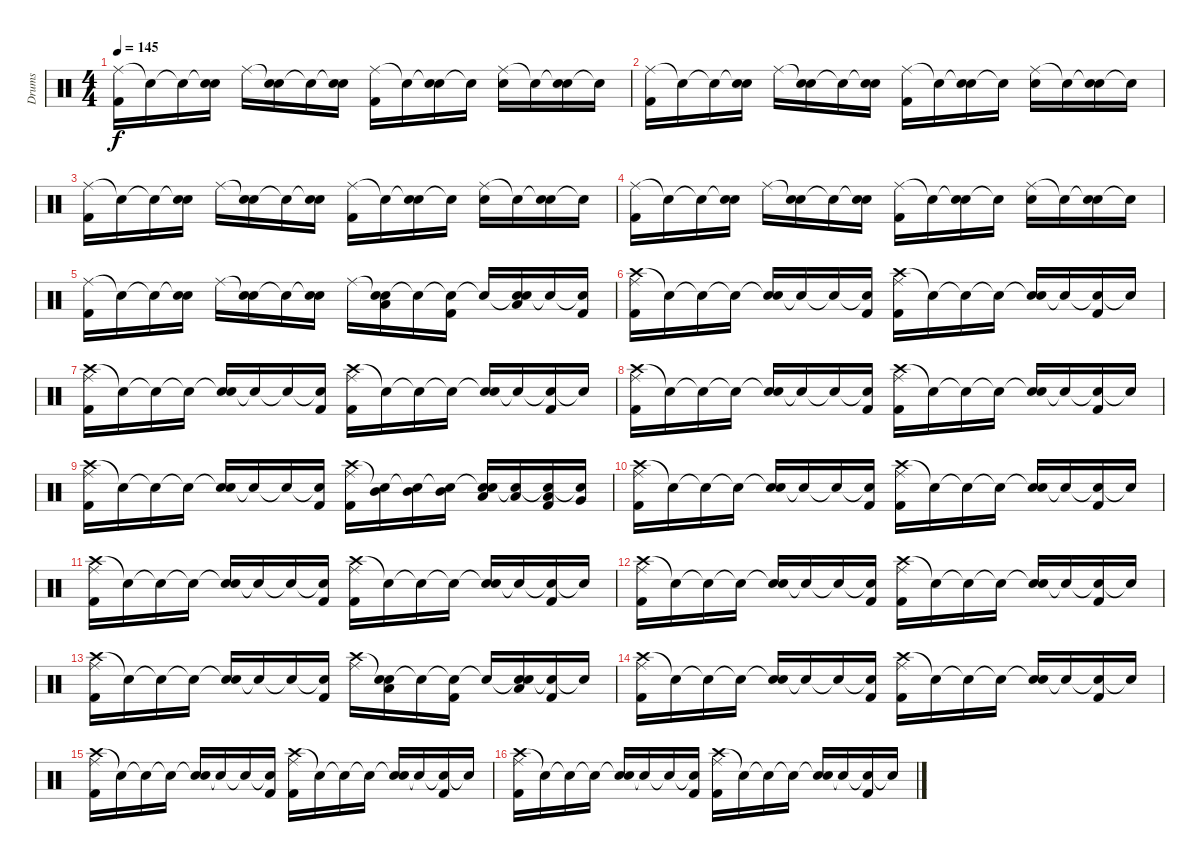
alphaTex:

\track ("Drums" "Drums") {instrument percussion}
\staff {score}
\articulation defaults
\ts (4 4)
\tempo 145
\clef neutral
\ks c
("Ride (middle)" "Kick (hit) 2").16{dy f} "Snare (hit)"{t}.16 "Snare (hit)"{t}.16 ("Snare (hit)"{t} "Electric Snare (hit)").16 "Ride (middle)".16 ("Snare (hit)"{t} "Electric Snare (hit)").16 "Snare (hit)"{t}.16 ("Snare (hit)"{t} "Electric Snare (hit)").16 ("Ride (middle)" "Kick (hit) 2").16 "Snare (hit)"{t}.16 ("Snare (hit)"{t} "Electric Snare (hit)").16 "Snare (hit)"{t}.16 ("Ride (middle)" "Electric Snare (hit)").16 "Snare (hit)"{t}.16 ("Snare (hit)"{t} "Electric Snare (hit)").16 "Snare (hit)"{t}.16 |
("Ride (middle)" "Kick (hit) 2").16 "Snare (hit)"{t}.16 "Snare (hit)"{t}.16 ("Snare (hit)"{t} "Electric Snare (hit)").16 "Ride (middle)".16 ("Snare (hit)"{t} "Electric Snare (hit)").16 "Snare (hit)"{t}.16 ("Snare (hit)"{t} "Electric Snare (hit)").16 ("Ride (middle)" "Kick (hit) 2").16 "Snare (hit)"{t}.16 ("Snare (hit)"{t} "Electric Snare (hit)").16 "Snare (hit)"{t}.16 ("Ride (middle)" "Electric Snare (hit)").16 "Snare (hit)"{t}.16 ("Snare (hit)"{t} "Electric Snare (hit)").16 "Snare (hit)"{t}.16 |
("Ride (middle)" "Kick (hit) 2").16 "Snare (hit)"{t}.16 "Snare (hit)"{t}.16 ("Snare (hit)"{t} "Electric Snare (hit)").16 "Ride (middle)".16 ("Snare (hit)"{t} "Electric Snare (hit)").16 "Snare (hit)"{t}.16 ("Snare (hit)"{t} "Electric Snare (hit)").16 ("Ride (middle)" "Kick (hit) 2").16 "Snare (hit)"{t}.16 ("Snare (hit)"{t} "Electric Snare (hit)").16 "Snare (hit)"{t}.16 ("Ride (middle)" "Electric Snare (hit)").16 "Snare (hit)"{t}.16 ("Snare (hit)"{t} "Electric Snare (hit)").16 "Snare (hit)"{t}.16 |
("Ride (middle)" "Kick (hit) 2").16 "Snare (hit)"{t}.16 "Snare (hit)"{t}.16 ("Snare (hit)"{t} "Electric Snare (hit)").16 "Ride (middle)".16 ("Snare (hit)"{t} "Electric Snare (hit)").16 "Snare (hit)"{t}.16 ("Snare (hit)"{t} "Electric Snare (hit)").16 ("Ride (middle)" "Kick (hit) 2").16 "Snare (hit)"{t}.16 ("Snare (hit)"{t} "Electric Snare (hit)").16 "Snare (hit)"{t}.16 ("Ride (middle)" "Electric Snare (hit)").16 "Snare (hit)"{t}.16 ("Snare (hit)"{t} "Electric Snare (hit)").16 "Snare (hit)"{t}.16 |
("Ride (middle)" "Kick (hit) 2").16 "Snare (hit)"{t}.16 "Snare (hit)"{t}.16 ("Snare (hit)"{t} "Electric Snare (hit)").16 "Ride (middle)".16 ("Snare (hit)"{t} "Electric Snare (hit)").16 "Snare (hit)"{t}.16 ("Snare (hit)"{t} "Electric Snare (hit)").16 "Ride (middle)".16 ("Snare (hit)"{t} "Low Floor Tom (hit)" "Electric Snare (hit)").16 "Snare (hit)"{t}.16 ("Snare (hit)"{t} "Kick (hit) 2").16 "Snare (hit)"{t}.16 ("Snare (hit)"{t} "Low Floor Tom (hit)" "Electric Snare (hit)").16 "Snare (hit)"{t}.16 ("Snare (hit)"{t} "Kick (hit) 2").16 |
("Crash high (hit)" "Ride (middle)" "Kick (hit) 2").16 "Snare (hit)"{t}.16 "Snare (hit)"{t}.16 "Snare (hit)"{t}.16 ("Snare (hit)"{t} "Electric Snare (hit)").16 "Snare (hit)"{t}.16 "Snare (hit)"{t}.16 ("Snare (hit)"{t} "Kick (hit) 2").16 ("Crash high (hit)" "Ride (middle)" "Kick (hit) 2").16 "Snare (hit)"{t}.16 "Snare (hit)"{t}.16 "Snare (hit)"{t}.16 ("Snare (hit)"{t} "Electric Snare (hit)").16 "Snare (hit)"{t}.16 ("Snare (hit)"{t} "Kick (hit) 2").16 "Snare (hit)"{t}.16 |
("Crash high (hit)" "Ride (middle)" "Kick (hit) 2").16 "Snare (hit)"{t}.16 "Snare (hit)"{t}.16 "Snare (hit)"{t}.16 ("Snare (hit)"{t} "Electric Snare (hit)").16 "Snare (hit)"{t}.16 "Snare (hit)"{t}.16 ("Snare (hit)"{t} "Kick (hit) 2").16 ("Crash high (hit)" "Ride (middle)" "Kick (hit) 2").16 "Snare (hit)"{t}.16 "Snare (hit)"{t}.16 "Snare (hit)"{t}.16 ("Snare (hit)"{t} "Electric Snare (hit)").16 "Snare (hit)"{t}.16 ("Snare (hit)"{t} "Kick (hit) 2").16 "Snare (hit)"{t}.16 |
("Crash high (hit)" "Ride (middle)" "Kick (hit) 2").16 "Snare (hit)"{t}.16 "Snare (hit)"{t}.16 "Snare (hit)"{t}.16 ("Snare (hit)"{t} "Electric Snare (hit)").16 "Snare (hit)"{t}.16 "Snare (hit)"{t}.16 ("Snare (hit)"{t} "Kick (hit) 2").16 ("Crash high (hit)" "Ride (middle)" "Kick (hit) 2").16 "Snare (hit)"{t}.16 "Snare (hit)"{t}.16 "Snare (hit)"{t}.16 ("Snare (hit)"{t} "Electric Snare (hit)").16 "Snare (hit)"{t}.16 ("Snare (hit)"{t} "Kick (hit) 2").16 "Snare (hit)"{t}.16 |
("Crash high (hit)" "Ride (middle)" "Kick (hit) 2").16 "Snare (hit)"{t}.16 "Snare (hit)"{t}.16 "Snare (hit)"{t}.16 ("Snare (hit)"{t} "Electric Snare (hit)").16 "Snare (hit)"{t}.16 "Snare (hit)"{t}.16 ("Snare (hit)"{t} "Kick (hit) 2").16 ("Crash high (hit)" "Ride (middle)" "Kick (hit) 2").16 ("Snare (hit)"{t} "Mid Tom (hit)").16 ("Snare (hit)"{t} "Mid Tom (hit)").16 ("Snare (hit)"{t} "Mid Tom (hit)").16 ("Snare (hit)"{t} "Low Tom (hit)" "Electric Snare (hit)").16 ("Snare (hit)"{t} "Low Tom (hit)").16 ("Snare (hit)"{t} "Low Tom (hit)" "Kick (hit) 2").16 ("Snare (hit)"{t} "Very Low Tom (hit)").16 |
("Crash high (hit)" "Ride (middle)" "Kick (hit) 2").16 "Snare (hit)"{t}.16 "Snare (hit)"{t}.16 "Snare (hit)"{t}.16 ("Snare (hit)"{t} "Electric Snare (hit)").16 "Snare (hit)"{t}.16 "Snare (hit)"{t}.16 ("Snare (hit)"{t} "Kick (hit) 2").16 ("Crash high (hit)" "Ride (middle)" "Kick (hit) 2").16 "Snare (hit)"{t}.16 "Snare (hit)"{t}.16 "Snare (hit)"{t}.16 ("Snare (hit)"{t} "Electric Snare (hit)").16 "Snare (hit)"{t}.16 ("Snare (hit)"{t} "Kick (hit) 2").16 "Snare (hit)"{t}.16 |
("Crash high (hit)" "Ride (middle)" "Kick (hit) 2").16 "Snare (hit)"{t}.16 "Snare (hit)"{t}.16 "Snare (hit)"{t}.16 ("Snare (hit)"{t} "Electric Snare (hit)").16 "Snare (hit)"{t}.16 "Snare (hit)"{t}.16 ("Snare (hit)"{t} "Kick (hit) 2").16 ("Crash high (hit)" "Ride (middle)" "Kick (hit) 2").16 "Snare (hit)"{t}.16 "Snare (hit)"{t}.16 "Snare (hit)"{t}.16 ("Snare (hit)"{t} "Electric Snare (hit)").16 "Snare (hit)"{t}.16 ("Snare (hit)"{t} "Kick (hit) 2").16 "Snare (hit)"{t}.16 |
("Crash high (hit)" "Ride (middle)" "Kick (hit) 2").16 "Snare (hit)"{t}.16 "Snare (hit)"{t}.16 "Snare (hit)"{t}.16 ("Snare (hit)"{t} "Electric Snare (hit)").16 "Snare (hit)"{t}.16 "Snare (hit)"{t}.16 ("Snare (hit)"{t} "Kick (hit) 2").16 ("Crash high (hit)" "Ride (middle)" "Kick (hit) 2").16 "Snare (hit)"{t}.16 "Snare (hit)"{t}.16 "Snare (hit)"{t}.16 ("Snare (hit)"{t} "Electric Snare (hit)").16 "Snare (hit)"{t}.16 ("Snare (hit)"{t} "Kick (hit) 2").16 "Snare (hit)"{t}.16 |
("Crash high (hit)" "Ride (middle)" "Kick (hit) 2").16 "Snare (hit)"{t}.16 "Snare (hit)"{t}.16 "Snare (hit)"{t}.16 ("Snare (hit)"{t} "Electric Snare (hit)").16 "Snare (hit)"{t}.16 "Snare (hit)"{t}.16 ("Snare (hit)"{t} "Kick (hit) 2").16 ("Crash high (hit)" "Ride (middle)").16 ("Snare (hit)"{t} "Low Floor Tom (hit)" "Electric Snare (hit)").16 "Snare (hit)"{t}.16 ("Snare (hit)"{t} "Kick (hit) 2").16 "Snare (hit)"{t}.16 ("Snare (hit)"{t} "Low Floor Tom (hit)" "Electric Snare (hit)").16 ("Snare (hit)"{t} "Kick (hit) 2").16 "Snare (hit)"{t}.16 |
("Crash high (hit)" "Ride (middle)" "Kick (hit) 2").16 "Snare (hit)"{t}.16 "Snare (hit)"{t}.16 "Snare (hit)"{t}.16 ("Snare (hit)"{t} "Electric Snare (hit)").16 "Snare (hit)"{t}.16 "Snare (hit)"{t}.16 ("Snare (hit)"{t} "Kick (hit) 2").16 ("Crash high (hit)" "Ride (middle)" "Kick (hit) 2").16 "Snare (hit)"{t}.16 "Snare (hit)"{t}.16 "Snare (hit)"{t}.16 ("Snare (hit)"{t} "Electric Snare (hit)").16 "Snare (hit)"{t}.16 ("Snare (hit)"{t} "Kick (hit) 2").16 "Snare (hit)"{t}.16 |
("Crash high (hit)" "Ride (middle)" "Kick (hit) 2").16 "Snare (hit)"{t}.16 "Snare (hit)"{t}.16 "Snare (hit)"{t}.16 ("Snare (hit)"{t} "Electric Snare (hit)").16 "Snare (hit)"{t}.16 "Snare (hit)"{t}.16 ("Snare (hit)"{t} "Kick (hit) 2").16 ("Crash high (hit)" "Ride (middle)" "Kick (hit) 2").16 "Snare (hit)"{t}.16 "Snare (hit)"{t}.16 "Snare (hit)"{t}.16 ("Snare (hit)"{t} "Electric Snare (hit)").16 "Snare (hit)"{t}.16 ("Snare (hit)"{t} "Kick (hit) 2").16 "Snare (hit)"{t}.16 |
("Crash high (hit)" "Ride (middle)" "Kick (hit) 2").16 "Snare (hit)"{t}.16 "Snare (hit)"{t}.16 "Snare (hit)"{t}.16 ("Snare (hit)"{t} "Electric Snare (hit)").16 "Snare (hit)"{t}.16 "Snare (hit)"{t}.16 ("Snare (hit)"{t} "Kick (hit) 2").16 ("Crash high (hit)" "Ride (middle)" "Kick (hit) 2").16 "Snare (hit)"{t}.16 "Snare (hit)"{t}.16 "Snare (hit)"{t}.16 ("Snare (hit)"{t} "Electric Snare (hit)").16 "Snare (hit)"{t}.16 ("Snare (hit)"{t} "Kick (hit) 2").16 "Snare (hit)"{t}.16
